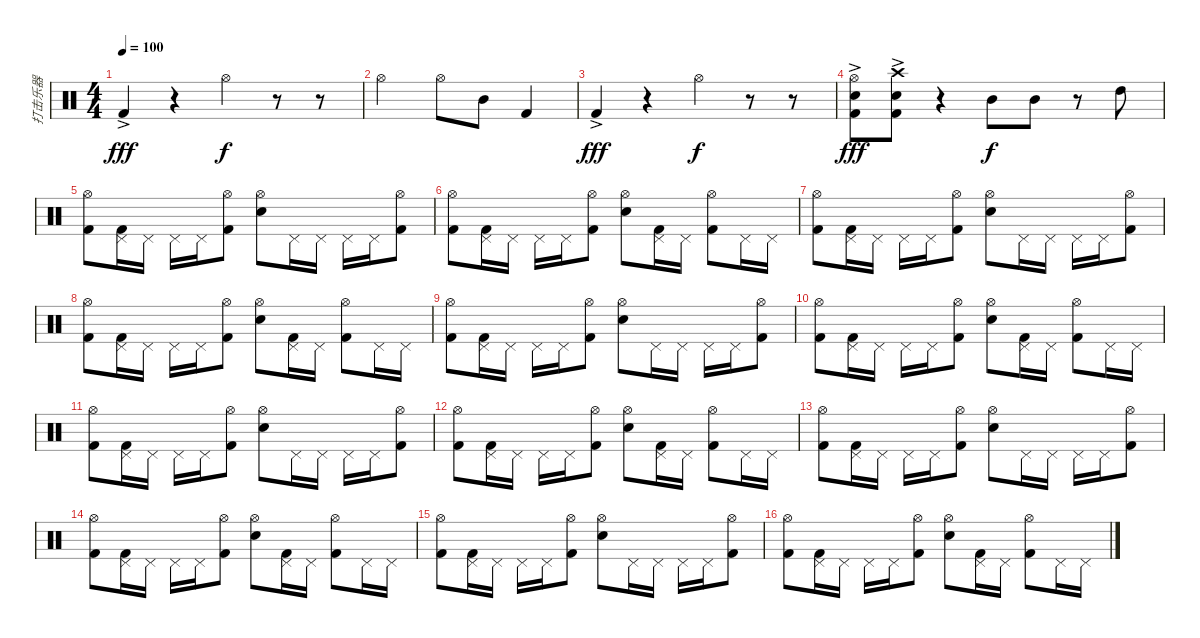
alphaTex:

\track ("打击乐器" "打击乐器") {instrument percussion}
\staff {score}
\articulation defaults
\ts (4 4)
\tempo 100
\clef neutral
\ks c "Kick (hit) 2"{ac}.4{dy fff}
r.4 "Hi-Hat (open)".4{dy f} r.8 r.8 |
"Hi-Hat (open)".2 "Hi-Hat (open)".8 "Mid Tom (hit)".8 "Kick (hit) 2".4 |
"Kick (hit) 2"{ac}.4{dy fff} r.4 "Hi-Hat (open)".4{dy f} r.8 r.8 |
("Hi-Hat (open)"{ac} "Electric Snare (hit)" "Kick (hit) 2").8{dy fff} ("Crash high (hit)"{ac} "Electric Snare (hit)" "Kick (hit) 2").8 r.4 "Mid Tom (hit)".8{dy f} "Mid Tom (hit)".8 r.8 "High Tom (hit)".8 |
("Hi-Hat (open)" "Kick (hit) 2").8 ("Pedal Hi-Hat (hit)" "Kick (hit) 2").16 "Pedal Hi-Hat (hit)".16 "Pedal Hi-Hat (hit)".16 "Pedal Hi-Hat (hit)".16 ("Hi-Hat (open)" "Kick (hit) 2").8 ("Hi-Hat (open)" "Electric Snare (hit)").8 "Pedal Hi-Hat (hit)".16 "Pedal Hi-Hat (hit)".16 "Pedal Hi-Hat (hit)".16 "Pedal Hi-Hat (hit)".16 ("Hi-Hat (open)" "Kick (hit) 2").8 |
("Hi-Hat (open)" "Kick (hit) 2").8 ("Pedal Hi-Hat (hit)" "Kick (hit) 2").16 "Pedal Hi-Hat (hit)".16 "Pedal Hi-Hat (hit)".16 "Pedal Hi-Hat (hit)".16 ("Hi-Hat (open)" "Kick (hit) 2").8 ("Hi-Hat (open)" "Electric Snare (hit)").8 ("Pedal Hi-Hat (hit)" "Kick (hit) 2").16 "Pedal Hi-Hat (hit)".16 ("Hi-Hat (open)" "Kick (hit) 2").8 "Pedal Hi-Hat (hit)".16 "Pedal Hi-Hat (hit)".16 |
("Hi-Hat (open)" "Kick (hit) 2").8 ("Pedal Hi-Hat (hit)" "Kick (hit) 2").16 "Pedal Hi-Hat (hit)".16 "Pedal Hi-Hat (hit)".16 "Pedal Hi-Hat (hit)".16 ("Hi-Hat (open)" "Kick (hit) 2").8 ("Hi-Hat (open)" "Electric Snare (hit)").8 "Pedal Hi-Hat (hit)".16 "Pedal Hi-Hat (hit)".16 "Pedal Hi-Hat (hit)".16 "Pedal Hi-Hat (hit)".16 ("Hi-Hat (open)" "Kick (hit) 2").8 |
("Hi-Hat (open)" "Kick (hit) 2").8 ("Pedal Hi-Hat (hit)" "Kick (hit) 2").16 "Pedal Hi-Hat (hit)".16 "Pedal Hi-Hat (hit)".16 "Pedal Hi-Hat (hit)".16 ("Hi-Hat (open)" "Kick (hit) 2").8 ("Hi-Hat (open)" "Electric Snare (hit)").8 ("Pedal Hi-Hat (hit)" "Kick (hit) 2").16 "Pedal Hi-Hat (hit)".16 ("Hi-Hat (open)" "Kick (hit) 2").8 "Pedal Hi-Hat (hit)".16 "Pedal Hi-Hat (hit)".16 |
("Hi-Hat (open)" "Kick (hit) 2").8 ("Pedal Hi-Hat (hit)" "Kick (hit) 2").16 "Pedal Hi-Hat (hit)".16 "Pedal Hi-Hat (hit)".16 "Pedal Hi-Hat (hit)".16 ("Hi-Hat (open)" "Kick (hit) 2").8 ("Hi-Hat (open)" "Electric Snare (hit)").8 "Pedal Hi-Hat (hit)".16 "Pedal Hi-Hat (hit)".16 "Pedal Hi-Hat (hit)".16 "Pedal Hi-Hat (hit)".16 ("Hi-Hat (open)" "Kick (hit) 2").8 |
("Hi-Hat (open)" "Kick (hit) 2").8 ("Pedal Hi-Hat (hit)" "Kick (hit) 2").16 "Pedal Hi-Hat (hit)".16 "Pedal Hi-Hat (hit)".16 "Pedal Hi-Hat (hit)".16 ("Hi-Hat (open)" "Kick (hit) 2").8 ("Hi-Hat (open)" "Electric Snare (hit)").8 ("Pedal Hi-Hat (hit)" "Kick (hit) 2").16 "Pedal Hi-Hat (hit)".16 ("Hi-Hat (open)" "Kick (hit) 2").8 "Pedal Hi-Hat (hit)".16 "Pedal Hi-Hat (hit)".16 |
("Hi-Hat (open)" "Kick (hit) 2").8 ("Pedal Hi-Hat (hit)" "Kick (hit) 2").16 "Pedal Hi-Hat (hit)".16 "Pedal Hi-Hat (hit)".16 "Pedal Hi-Hat (hit)".16 ("Hi-Hat (open)" "Kick (hit) 2").8 ("Hi-Hat (open)" "Electric Snare (hit)").8 "Pedal Hi-Hat (hit)".16 "Pedal Hi-Hat (hit)".16 "Pedal Hi-Hat (hit)".16 "Pedal Hi-Hat (hit)".16 ("Hi-Hat (open)" "Kick (hit) 2").8 |
("Hi-Hat (open)" "Kick (hit) 2").8 ("Pedal Hi-Hat (hit)" "Kick (hit) 2").16 "Pedal Hi-Hat (hit)".16 "Pedal Hi-Hat (hit)".16 "Pedal Hi-Hat (hit)".16 ("Hi-Hat (open)" "Kick (hit) 2").8 ("Hi-Hat (open)" "Electric Snare (hit)").8 ("Pedal Hi-Hat (hit)" "Kick (hit) 2").16 "Pedal Hi-Hat (hit)".16 ("Hi-Hat (open)" "Kick (hit) 2").8 "Pedal Hi-Hat (hit)".16 "Pedal Hi-Hat (hit)".16 |
("Hi-Hat (open)" "Kick (hit) 2").8 ("Pedal Hi-Hat (hit)" "Kick (hit) 2").16 "Pedal Hi-Hat (hit)".16 "Pedal Hi-Hat (hit)".16 "Pedal Hi-Hat (hit)".16 ("Hi-Hat (open)" "Kick (hit) 2").8 ("Hi-Hat (open)" "Electric Snare (hit)").8 "Pedal Hi-Hat (hit)".16 "Pedal Hi-Hat (hit)".16 "Pedal Hi-Hat (hit)".16 "Pedal Hi-Hat (hit)".16 ("Hi-Hat (open)" "Kick (hit) 2").8 |
("Hi-Hat (open)" "Kick (hit) 2").8 ("Pedal Hi-Hat (hit)" "Kick (hit) 2").16 "Pedal Hi-Hat (hit)".16 "Pedal Hi-Hat (hit)".16 "Pedal Hi-Hat (hit)".16 ("Hi-Hat (open)" "Kick (hit) 2").8 ("Hi-Hat (open)" "Electric Snare (hit)").8 ("Pedal Hi-Hat (hit)" "Kick (hit) 2").16 "Pedal Hi-Hat (hit)".16 ("Hi-Hat (open)" "Kick (hit) 2").8 "Pedal Hi-Hat (hit)".16 "Pedal Hi-Hat (hit)".16 |
("Hi-Hat (open)" "Kick (hit) 2").8 ("Pedal Hi-Hat (hit)" "Kick (hit) 2").16 "Pedal Hi-Hat (hit)".16 "Pedal Hi-Hat (hit)".16 "Pedal Hi-Hat (hit)".16 ("Hi-Hat (open)" "Kick (hit) 2").8 ("Hi-Hat (open)" "Electric Snare (hit)").8 "Pedal Hi-Hat (hit)".16 "Pedal Hi-Hat (hit)".16 "Pedal Hi-Hat (hit)".16 "Pedal Hi-Hat (hit)".16 ("Hi-Hat (open)" "Kick (hit) 2").8 |
("Hi-Hat (open)" "Kick (hit) 2").8 ("Pedal Hi-Hat (hit)" "Kick (hit) 2").16 "Pedal Hi-Hat (hit)".16 "Pedal Hi-Hat (hit)".16 "Pedal Hi-Hat (hit)".16 ("Hi-Hat (open)" "Kick (hit) 2").8 ("Hi-Hat (open)" "Electric Snare (hit)").8 ("Pedal Hi-Hat (hit)" "Kick (hit) 2").16 "Pedal Hi-Hat (hit)".16 ("Hi-Hat (open)" "Kick (hit) 2").8 "Pedal Hi-Hat (hit)".16 "Pedal Hi-Hat (hit)".16
